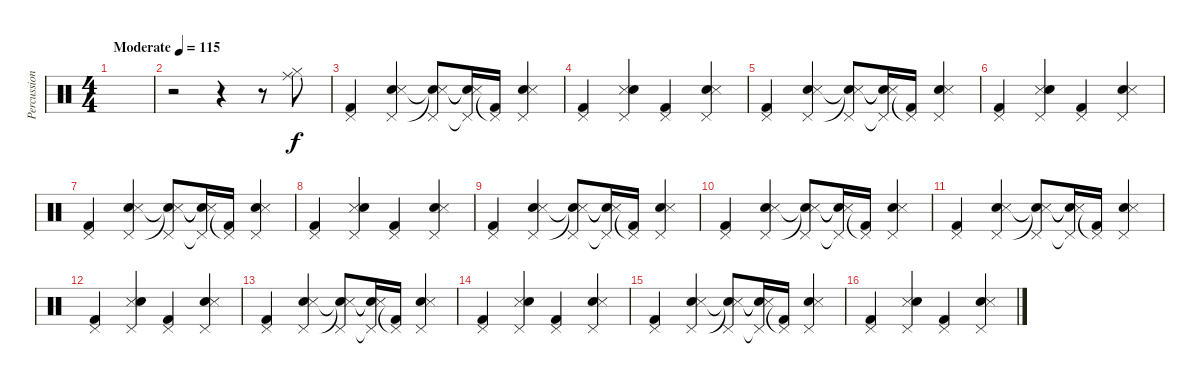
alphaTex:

\track ("Percussioni" "Percussion") {instrument percussion}
\staff {score}
\articulation defaults
\ts (4 4)
\tempo (115 "Moderate")
\clef neutral
\ks c
|
r.2 r.4 r.8 ("Hi-Hat (closed)" "Ride (middle)").8 |
("Kick (hit) 2" "Pedal Hi-Hat (hit)").4 ("Electric Snare (hit)" "Pedal Hi-Hat (hit)" "Snare (side stick) 3").4 ("Pedal Hi-Hat (hit)" "Electric Snare (hit)"{t} "Snare (side stick) 3"{t}).8 ("Pedal Hi-Hat (hit)"{t} "Electric Snare (hit)"{t} "Snare (side stick) 3"{t}).16 ("Kick (hit) 2" "Pedal Hi-Hat (hit)"{t}).16 ("Electric Snare (hit)" "Pedal Hi-Hat (hit)" "Snare (side stick) 3").4 |
("Kick (hit) 2" "Pedal Hi-Hat (hit)").4 ("Snare (side stick) 3" "Pedal Hi-Hat (hit)" "Electric Snare (hit)").4 ("Kick (hit) 2" "Pedal Hi-Hat (hit)").4 ("Electric Snare (hit)" "Pedal Hi-Hat (hit)" "Snare (side stick) 3").4 |
("Kick (hit) 2" "Pedal Hi-Hat (hit)").4 ("Electric Snare (hit)" "Pedal Hi-Hat (hit)" "Snare (side stick) 3").4 ("Pedal Hi-Hat (hit)" "Electric Snare (hit)"{t} "Snare (side stick) 3"{t}).8 ("Pedal Hi-Hat (hit)"{t} "Electric Snare (hit)"{t} "Snare (side stick) 3"{t}).16 ("Kick (hit) 2" "Pedal Hi-Hat (hit)"{t}).16 ("Electric Snare (hit)" "Pedal Hi-Hat (hit)" "Snare (side stick) 3").4 |
("Kick (hit) 2" "Pedal Hi-Hat (hit)").4 ("Snare (side stick) 3" "Pedal Hi-Hat (hit)" "Electric Snare (hit)").4 ("Kick (hit) 2" "Pedal Hi-Hat (hit)").4 ("Electric Snare (hit)" "Pedal Hi-Hat (hit)" "Snare (side stick) 3").4 |
("Kick (hit) 2" "Pedal Hi-Hat (hit)").4 ("Electric Snare (hit)" "Pedal Hi-Hat (hit)" "Snare (side stick) 3").4 ("Pedal Hi-Hat (hit)" "Electric Snare (hit)"{t} "Snare (side stick) 3"{t}).8 ("Pedal Hi-Hat (hit)"{t} "Electric Snare (hit)"{t} "Snare (side stick) 3"{t}).16 ("Kick (hit) 2" "Pedal Hi-Hat (hit)"{t}).16 ("Electric Snare (hit)" "Pedal Hi-Hat (hit)" "Snare (side stick) 3").4 |
("Kick (hit) 2" "Pedal Hi-Hat (hit)").4 ("Snare (side stick) 3" "Pedal Hi-Hat (hit)" "Electric Snare (hit)").4 ("Kick (hit) 2" "Pedal Hi-Hat (hit)").4 ("Electric Snare (hit)" "Pedal Hi-Hat (hit)" "Snare (side stick) 3").4 |
("Kick (hit) 2" "Pedal Hi-Hat (hit)").4 ("Electric Snare (hit)" "Pedal Hi-Hat (hit)" "Snare (side stick) 3").4 ("Pedal Hi-Hat (hit)" "Electric Snare (hit)"{t} "Snare (side stick) 3"{t}).8 ("Pedal Hi-Hat (hit)"{t} "Electric Snare (hit)"{t} "Snare (side stick) 3"{t}).16 ("Kick (hit) 2" "Pedal Hi-Hat (hit)"{t}).16 ("Electric Snare (hit)" "Pedal Hi-Hat (hit)" "Snare (side stick) 3").4 |
("Kick (hit) 2" "Pedal Hi-Hat (hit)").4 ("Electric Snare (hit)" "Pedal Hi-Hat (hit)" "Snare (side stick) 3").4 ("Pedal Hi-Hat (hit)" "Electric Snare (hit)"{t} "Snare (side stick) 3"{t}).8 ("Pedal Hi-Hat (hit)"{t} "Electric Snare (hit)"{t} "Snare (side stick) 3"{t}).16 ("Kick (hit) 2" "Pedal Hi-Hat (hit)"{t}).16 ("Electric Snare (hit)" "Pedal Hi-Hat (hit)" "Snare (side stick) 3").4 |
("Kick (hit) 2" "Pedal Hi-Hat (hit)").4 ("Electric Snare (hit)" "Pedal Hi-Hat (hit)" "Snare (side stick) 3").4 ("Pedal Hi-Hat (hit)" "Electric Snare (hit)"{t} "Snare (side stick) 3"{t}).8 ("Pedal Hi-Hat (hit)"{t} "Electric Snare (hit)"{t} "Snare (side stick) 3"{t}).16 ("Kick (hit) 2" "Pedal Hi-Hat (hit)"{t}).16 ("Electric Snare (hit)" "Pedal Hi-Hat (hit)" "Snare (side stick) 3").4 |
("Kick (hit) 2" "Pedal Hi-Hat (hit)").4 ("Snare (side stick) 3" "Pedal Hi-Hat (hit)" "Electric Snare (hit)").4 ("Kick (hit) 2" "Pedal Hi-Hat (hit)").4 ("Electric Snare (hit)" "Pedal Hi-Hat (hit)" "Snare (side stick) 3").4 |
("Kick (hit) 2" "Pedal Hi-Hat (hit)").4 ("Electric Snare (hit)" "Pedal Hi-Hat (hit)" "Snare (side stick) 3").4 ("Pedal Hi-Hat (hit)" "Electric Snare (hit)"{t} "Snare (side stick) 3"{t}).8 ("Pedal Hi-Hat (hit)"{t} "Electric Snare (hit)"{t} "Snare (side stick) 3"{t}).16 ("Kick (hit) 2" "Pedal Hi-Hat (hit)"{t}).16 ("Electric Snare (hit)" "Pedal Hi-Hat (hit)" "Snare (side stick) 3").4 |
("Kick (hit) 2" "Pedal Hi-Hat (hit)").4 ("Snare (side stick) 3" "Pedal Hi-Hat (hit)" "Electric Snare (hit)").4 ("Kick (hit) 2" "Pedal Hi-Hat (hit)").4 ("Electric Snare (hit)" "Pedal Hi-Hat (hit)" "Snare (side stick) 3").4 |
("Kick (hit) 2" "Pedal Hi-Hat (hit)").4 ("Electric Snare (hit)" "Pedal Hi-Hat (hit)" "Snare (side stick) 3").4 ("Pedal Hi-Hat (hit)" "Electric Snare (hit)"{t} "Snare (side stick) 3"{t}).8 ("Pedal Hi-Hat (hit)"{t} "Electric Snare (hit)"{t} "Snare (side stick) 3"{t}).16 ("Kick (hit) 2" "Pedal Hi-Hat (hit)"{t}).16 ("Electric Snare (hit)" "Pedal Hi-Hat (hit)" "Snare (side stick) 3").4 |
("Kick (hit) 2" "Pedal Hi-Hat (hit)").4 ("Snare (side stick) 3" "Pedal Hi-Hat (hit)" "Electric Snare (hit)").4 ("Kick (hit) 2" "Pedal Hi-Hat (hit)").4 ("Electric Snare (hit)" "Pedal Hi-Hat (hit)" "Snare (side stick) 3").4
